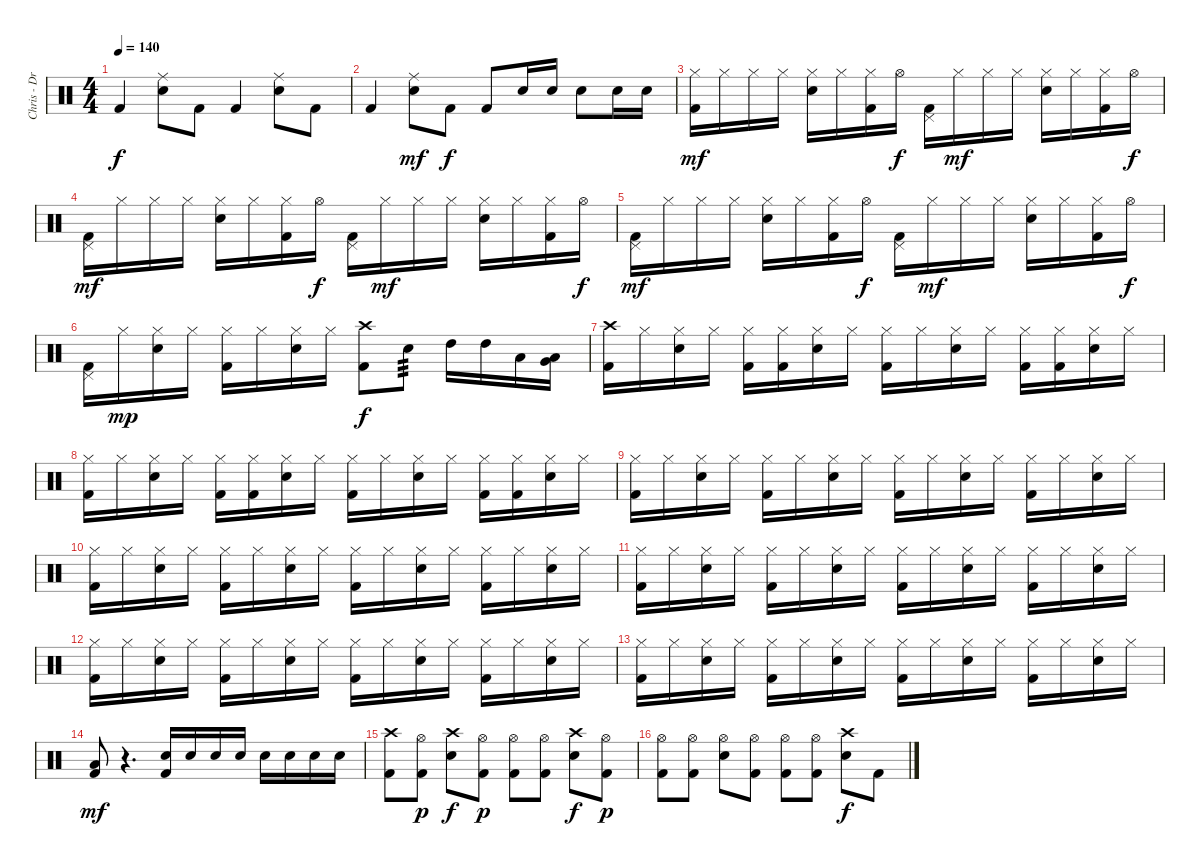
\track ("Chris - Drums" "Chris - Dr") {instrument percussion}
\staff {score}
\articulation defaults
\ts (4 4)
\tempo 140
\clef neutral
\ks c "Kick (hit) 2".4{dy f}
("Ride (middle)" "Electric Snare (hit)").8 "Kick (hit) 2".8 "Kick (hit) 2".4 ("Ride (middle)" "Electric Snare (hit)").8 "Kick (hit) 2".8 |
"Kick (hit) 2".4 ("Ride (middle)" "Electric Snare (hit)").8{dy mf} "Kick (hit) 2".8{dy f} "Kick (hit) 2".8 "Electric Snare (hit)".16 "Electric Snare (hit)".16 "Electric Snare (hit)".8 "Electric Snare (hit)".16 "Electric Snare (hit)".16 |
("Hi-Hat (closed)" "Kick (hit) 2").16{dy mf} "Hi-Hat (closed)".16 "Hi-Hat (closed)".16 "Hi-Hat (closed)".16 ("Hi-Hat (closed)" "Electric Snare (hit)").16 "Hi-Hat (closed)".16 ("Hi-Hat (closed)" "Kick (hit) 2").16 "Hi-Hat (open)".16{dy f} ("Pedal Hi-Hat (hit)" "Kick (hit) 2").16 "Hi-Hat (closed)".16{dy mf} "Hi-Hat (closed)".16 "Hi-Hat (closed)".16 ("Hi-Hat (closed)" "Electric Snare (hit)").16 "Hi-Hat (closed)".16 ("Hi-Hat (closed)" "Kick (hit) 2").16 "Hi-Hat (open)".16{dy f} |
("Pedal Hi-Hat (hit)" "Kick (hit) 2").16{dy mf} "Hi-Hat (closed)".16 "Hi-Hat (closed)".16 "Hi-Hat (closed)".16 ("Hi-Hat (closed)" "Electric Snare (hit)").16 "Hi-Hat (closed)".16 ("Hi-Hat (closed)" "Kick (hit) 2").16 "Hi-Hat (open)".16{dy f} ("Pedal Hi-Hat (hit)" "Kick (hit) 2").16 "Hi-Hat (closed)".16{dy mf} "Hi-Hat (closed)".16 "Hi-Hat (closed)".16 ("Hi-Hat (closed)" "Electric Snare (hit)").16 "Hi-Hat (closed)".16 ("Hi-Hat (closed)" "Kick (hit) 2").16 "Hi-Hat (open)".16{dy f} |
("Pedal Hi-Hat (hit)" "Kick (hit) 2").16{dy mf} "Hi-Hat (closed)".16 "Hi-Hat (closed)".16 "Hi-Hat (closed)".16 ("Hi-Hat (closed)" "Electric Snare (hit)").16 "Hi-Hat (closed)".16 ("Hi-Hat (closed)" "Kick (hit) 2").16 "Hi-Hat (open)".16{dy f} ("Pedal Hi-Hat (hit)" "Kick (hit) 2").16 "Hi-Hat (closed)".16{dy mf} "Hi-Hat (closed)".16 "Hi-Hat (closed)".16 ("Hi-Hat (closed)" "Electric Snare (hit)").16 "Hi-Hat (closed)".16 ("Hi-Hat (closed)" "Kick (hit) 2").16 "Hi-Hat (open)".16{dy f} |
("Pedal Hi-Hat (hit)" "Kick (hit) 2").16 "Hi-Hat (closed)".16{dy mp} ("Hi-Hat (closed)" "Electric Snare (hit)").16 "Hi-Hat (closed)".16 ("Hi-Hat (closed)" "Kick (hit) 2").16 "Hi-Hat (closed)".16 ("Hi-Hat (closed)" "Electric Snare (hit)").16 "Hi-Hat (closed)".16 ("Crash high (hit)" "Kick (hit) 2").8{dy f} "Electric Snare (hit)".8{tp 3} "High Tom (hit)".16 "High Tom (hit)".16 "Low Tom (hit)".16 ("Very Low Tom (hit)" "Low Floor Tom (hit)").16 |
("Crash high (hit)" "Kick (hit) 2").16 "Hi-Hat (closed)".16 ("Hi-Hat (closed)" "Electric Snare (hit)").16 "Hi-Hat (closed)".16 ("Hi-Hat (closed)" "Kick (hit) 2").16 ("Hi-Hat (closed)" "Kick (hit) 2").16 ("Hi-Hat (closed)" "Electric Snare (hit)").16 "Hi-Hat (closed)".16 ("Hi-Hat (closed)" "Kick (hit) 2").16 "Hi-Hat (closed)".16 ("Hi-Hat (closed)" "Electric Snare (hit)").16 "Hi-Hat (closed)".16 ("Hi-Hat (closed)" "Kick (hit) 2").16 ("Hi-Hat (closed)" "Kick (hit) 2").16 ("Hi-Hat (closed)" "Electric Snare (hit)").16 "Hi-Hat (closed)".16 |
("Hi-Hat (closed)" "Kick (hit) 2").16 "Hi-Hat (closed)".16 ("Hi-Hat (closed)" "Electric Snare (hit)").16 "Hi-Hat (closed)".16 ("Hi-Hat (closed)" "Kick (hit) 2").16 ("Hi-Hat (closed)" "Kick (hit) 2").16 ("Hi-Hat (closed)" "Electric Snare (hit)").16 "Hi-Hat (closed)".16 ("Hi-Hat (closed)" "Kick (hit) 2").16 "Hi-Hat (closed)".16 ("Hi-Hat (closed)" "Electric Snare (hit)").16 "Hi-Hat (closed)".16 ("Hi-Hat (closed)" "Kick (hit) 2").16 ("Hi-Hat (closed)" "Kick (hit) 2").16 ("Hi-Hat (closed)" "Electric Snare (hit)").16 "Hi-Hat (closed)".16 |
("Hi-Hat (closed)" "Kick (hit) 2").16 "Hi-Hat (closed)".16 ("Hi-Hat (closed)" "Electric Snare (hit)").16 "Hi-Hat (closed)".16 ("Hi-Hat (closed)" "Kick (hit) 2").16 "Hi-Hat (closed)".16 ("Hi-Hat (closed)" "Electric Snare (hit)").16 "Hi-Hat (closed)".16 ("Hi-Hat (closed)" "Kick (hit) 2").16 "Hi-Hat (closed)".16 ("Hi-Hat (closed)" "Electric Snare (hit)").16 "Hi-Hat (closed)".16 ("Hi-Hat (closed)" "Kick (hit) 2").16 "Hi-Hat (closed)".16 ("Hi-Hat (closed)" "Electric Snare (hit)").16 "Hi-Hat (closed)".16 |
("Hi-Hat (closed)" "Kick (hit) 2").16 "Hi-Hat (closed)".16 ("Hi-Hat (closed)" "Electric Snare (hit)").16 "Hi-Hat (closed)".16 ("Hi-Hat (closed)" "Kick (hit) 2").16 "Hi-Hat (closed)".16 ("Hi-Hat (closed)" "Electric Snare (hit)").16 "Hi-Hat (closed)".16 ("Hi-Hat (closed)" "Kick (hit) 2").16 "Hi-Hat (closed)".16 ("Hi-Hat (closed)" "Electric Snare (hit)").16 "Hi-Hat (closed)".16 ("Hi-Hat (closed)" "Kick (hit) 2").16 "Hi-Hat (closed)".16 ("Hi-Hat (closed)" "Electric Snare (hit)").16 "Hi-Hat (closed)".16 |
("Hi-Hat (closed)" "Kick (hit) 2").16 "Hi-Hat (closed)".16 ("Hi-Hat (closed)" "Electric Snare (hit)").16 "Hi-Hat (closed)".16 ("Hi-Hat (closed)" "Kick (hit) 2").16 "Hi-Hat (closed)".16 ("Hi-Hat (closed)" "Electric Snare (hit)").16 "Hi-Hat (closed)".16 ("Hi-Hat (closed)" "Kick (hit) 2").16 "Hi-Hat (closed)".16 ("Hi-Hat (closed)" "Electric Snare (hit)").16 "Hi-Hat (closed)".16 ("Hi-Hat (closed)" "Kick (hit) 2").16 "Hi-Hat (closed)".16 ("Hi-Hat (closed)" "Electric Snare (hit)").16 "Hi-Hat (closed)".16 |
("Hi-Hat (closed)" "Kick (hit) 2").16 "Hi-Hat (closed)".16 ("Hi-Hat (closed)" "Electric Snare (hit)").16 "Hi-Hat (closed)".16 ("Hi-Hat (closed)" "Kick (hit) 2").16 "Hi-Hat (closed)".16 ("Hi-Hat (closed)" "Electric Snare (hit)").16 "Hi-Hat (closed)".16 ("Hi-Hat (closed)" "Kick (hit) 2").16 "Hi-Hat (closed)".16 ("Hi-Hat (closed)" "Electric Snare (hit)").16 "Hi-Hat (closed)".16 ("Hi-Hat (closed)" "Kick (hit) 2").16 "Hi-Hat (closed)".16 ("Hi-Hat (closed)" "Electric Snare (hit)").16 "Hi-Hat (closed)".16 |
("Hi-Hat (closed)" "Kick (hit) 2").16 "Hi-Hat (closed)".16 ("Hi-Hat (closed)" "Electric Snare (hit)").16 "Hi-Hat (closed)".16 ("Hi-Hat (closed)" "Kick (hit) 2").16 "Hi-Hat (closed)".16 ("Hi-Hat (closed)" "Electric Snare (hit)").16 "Hi-Hat (closed)".16 ("Hi-Hat (closed)" "Kick (hit) 2").16 "Hi-Hat (closed)".16 ("Hi-Hat (closed)" "Electric Snare (hit)").16 "Hi-Hat (closed)".16 ("Hi-Hat (closed)" "Kick (hit) 2").16 "Hi-Hat (closed)".16 ("Hi-Hat (closed)" "Electric Snare (hit)").16 "Hi-Hat (closed)".16 |
("Low Tom (hit)" "Kick (hit) 2").8{dy mf} r.4{d} ("Electric Snare (hit)" "Kick (hit) 2").16 "Electric Snare (hit)".16 "Electric Snare (hit)".16 "Electric Snare (hit)".16 "Electric Snare (hit)".16 "Electric Snare (hit)".16 "Electric Snare (hit)".16 "Electric Snare (hit)".16 |
("Crash high (hit)" "Kick (hit) 2").8 ("Hi-Hat (open)" "Kick (hit) 2").8{dy p} ("Crash high (hit)" "Electric Snare (hit)").8{dy f} ("Hi-Hat (open)" "Kick (hit) 2").8{dy p} ("Hi-Hat (open)" "Kick (hit) 2").8 ("Hi-Hat (open)" "Kick (hit) 2").8 ("Crash high (hit)" "Electric Snare (hit)").8{dy f} ("Hi-Hat (open)" "Kick (hit) 2").8{dy p} |
("Hi-Hat (open)" "Kick (hit) 2").8 ("Hi-Hat (open)" "Kick (hit) 2").8 ("Hi-Hat (open)" "Electric Snare (hit)").8 ("Hi-Hat (open)" "Kick (hit) 2").8 ("Hi-Hat (open)" "Kick (hit) 2").8 ("Hi-Hat (open)" "Kick (hit) 2").8 ("Crash high (hit)" "Electric Snare (hit)").8{dy f} "Kick (hit) 2".8
